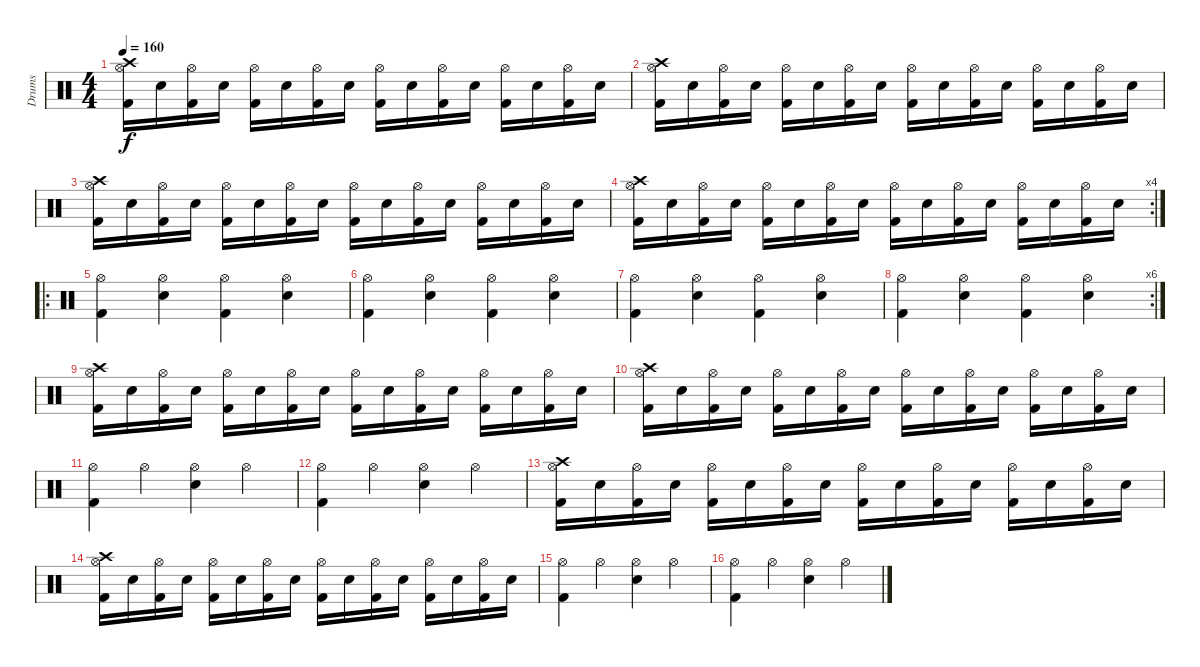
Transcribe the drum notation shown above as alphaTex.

\track ("Drums" "Drums") {instrument percussion}
\staff {score}
\articulation defaults
\ts (4 4)
\tempo 160
\clef neutral
\ks c
("Kick (hit) 2" "Hi-Hat (open)" "Crash high (hit)").16{dy f} "Snare (hit) 2".16 ("Kick (hit) 2" "Hi-Hat (open)").16 "Snare (hit) 2".16 ("Kick (hit) 2" "Hi-Hat (open)").16 "Snare (hit) 2".16 ("Kick (hit) 2" "Hi-Hat (open)").16 "Snare (hit) 2".16 ("Kick (hit) 2" "Hi-Hat (open)").16 "Snare (hit) 2".16 ("Kick (hit) 2" "Hi-Hat (open)").16 "Snare (hit) 2".16 ("Kick (hit) 2" "Hi-Hat (open)").16 "Snare (hit) 2".16 ("Kick (hit) 2" "Hi-Hat (open)").16 "Snare (hit) 2".16 |
("Kick (hit) 2" "Hi-Hat (open)" "Crash high (hit)").16 "Snare (hit) 2".16 ("Kick (hit) 2" "Hi-Hat (open)").16 "Snare (hit) 2".16 ("Kick (hit) 2" "Hi-Hat (open)").16 "Snare (hit) 2".16 ("Kick (hit) 2" "Hi-Hat (open)").16 "Snare (hit) 2".16 ("Kick (hit) 2" "Hi-Hat (open)").16 "Snare (hit) 2".16 ("Kick (hit) 2" "Hi-Hat (open)").16 "Snare (hit) 2".16 ("Kick (hit) 2" "Hi-Hat (open)").16 "Snare (hit) 2".16 ("Kick (hit) 2" "Hi-Hat (open)").16 "Snare (hit) 2".16 |
("Kick (hit) 2" "Hi-Hat (open)" "Crash high (hit)").16 "Snare (hit) 2".16 ("Kick (hit) 2" "Hi-Hat (open)").16 "Snare (hit) 2".16 ("Kick (hit) 2" "Hi-Hat (open)").16 "Snare (hit) 2".16 ("Kick (hit) 2" "Hi-Hat (open)").16 "Snare (hit) 2".16 ("Kick (hit) 2" "Hi-Hat (open)").16 "Snare (hit) 2".16 ("Kick (hit) 2" "Hi-Hat (open)").16 "Snare (hit) 2".16 ("Kick (hit) 2" "Hi-Hat (open)").16 "Snare (hit) 2".16 ("Kick (hit) 2" "Hi-Hat (open)").16 "Snare (hit) 2".16 |
\rc 4
("Kick (hit) 2" "Hi-Hat (open)" "Crash high (hit)").16 "Snare (hit) 2".16 ("Kick (hit) 2" "Hi-Hat (open)").16 "Snare (hit) 2".16 ("Kick (hit) 2" "Hi-Hat (open)").16 "Snare (hit) 2".16 ("Kick (hit) 2" "Hi-Hat (open)").16 "Snare (hit) 2".16 ("Kick (hit) 2" "Hi-Hat (open)").16 "Snare (hit) 2".16 ("Kick (hit) 2" "Hi-Hat (open)").16 "Snare (hit) 2".16 ("Kick (hit) 2" "Hi-Hat (open)").16 "Snare (hit) 2".16 ("Kick (hit) 2" "Hi-Hat (open)").16 "Snare (hit) 2".16 |
\ro
("Kick (hit) 2" "Hi-Hat (open)").4 ("Snare (hit) 2" "Hi-Hat (open)").4 ("Kick (hit) 2" "Hi-Hat (open)").4 ("Snare (hit) 2" "Hi-Hat (open)").4 |
("Kick (hit) 2" "Hi-Hat (open)").4 ("Snare (hit) 2" "Hi-Hat (open)").4 ("Kick (hit) 2" "Hi-Hat (open)").4 ("Snare (hit) 2" "Hi-Hat (open)").4 |
("Kick (hit) 2" "Hi-Hat (open)").4 ("Snare (hit) 2" "Hi-Hat (open)").4 ("Kick (hit) 2" "Hi-Hat (open)").4 ("Snare (hit) 2" "Hi-Hat (open)").4 |
\rc 6
("Kick (hit) 2" "Hi-Hat (open)").4 ("Snare (hit) 2" "Hi-Hat (open)").4 ("Kick (hit) 2" "Hi-Hat (open)").4 ("Snare (hit) 2" "Hi-Hat (open)").4 |
("Kick (hit) 2" "Hi-Hat (open)" "Crash high (hit)").16 "Snare (hit) 2".16 ("Kick (hit) 2" "Hi-Hat (open)").16 "Snare (hit) 2".16 ("Kick (hit) 2" "Hi-Hat (open)").16 "Snare (hit) 2".16 ("Kick (hit) 2" "Hi-Hat (open)").16 "Snare (hit) 2".16 ("Kick (hit) 2" "Hi-Hat (open)").16 "Snare (hit) 2".16 ("Kick (hit) 2" "Hi-Hat (open)").16 "Snare (hit) 2".16 ("Kick (hit) 2" "Hi-Hat (open)").16 "Snare (hit) 2".16 ("Kick (hit) 2" "Hi-Hat (open)").16 "Snare (hit) 2".16 |
("Kick (hit) 2" "Hi-Hat (open)" "Crash high (hit)").16 "Snare (hit) 2".16 ("Kick (hit) 2" "Hi-Hat (open)").16 "Snare (hit) 2".16 ("Kick (hit) 2" "Hi-Hat (open)").16 "Snare (hit) 2".16 ("Kick (hit) 2" "Hi-Hat (open)").16 "Snare (hit) 2".16 ("Kick (hit) 2" "Hi-Hat (open)").16 "Snare (hit) 2".16 ("Kick (hit) 2" "Hi-Hat (open)").16 "Snare (hit) 2".16 ("Kick (hit) 2" "Hi-Hat (open)").16 "Snare (hit) 2".16 ("Kick (hit) 2" "Hi-Hat (open)").16 "Snare (hit) 2".16 |
("Kick (hit) 2" "Hi-Hat (open)").4 "Hi-Hat (open)".4 ("Snare (hit) 2" "Hi-Hat (open)").4 "Hi-Hat (open)".4 |
("Kick (hit) 2" "Hi-Hat (open)").4 "Hi-Hat (open)".4 ("Snare (hit) 2" "Hi-Hat (open)").4 "Hi-Hat (open)".4 |
("Kick (hit) 2" "Hi-Hat (open)" "Crash high (hit)").16 "Snare (hit) 2".16 ("Kick (hit) 2" "Hi-Hat (open)").16 "Snare (hit) 2".16 ("Kick (hit) 2" "Hi-Hat (open)").16 "Snare (hit) 2".16 ("Kick (hit) 2" "Hi-Hat (open)").16 "Snare (hit) 2".16 ("Kick (hit) 2" "Hi-Hat (open)").16 "Snare (hit) 2".16 ("Kick (hit) 2" "Hi-Hat (open)").16 "Snare (hit) 2".16 ("Kick (hit) 2" "Hi-Hat (open)").16 "Snare (hit) 2".16 ("Kick (hit) 2" "Hi-Hat (open)").16 "Snare (hit) 2".16 |
("Kick (hit) 2" "Hi-Hat (open)" "Crash high (hit)").16 "Snare (hit) 2".16 ("Kick (hit) 2" "Hi-Hat (open)").16 "Snare (hit) 2".16 ("Kick (hit) 2" "Hi-Hat (open)").16 "Snare (hit) 2".16 ("Kick (hit) 2" "Hi-Hat (open)").16 "Snare (hit) 2".16 ("Kick (hit) 2" "Hi-Hat (open)").16 "Snare (hit) 2".16 ("Kick (hit) 2" "Hi-Hat (open)").16 "Snare (hit) 2".16 ("Kick (hit) 2" "Hi-Hat (open)").16 "Snare (hit) 2".16 ("Kick (hit) 2" "Hi-Hat (open)").16 "Snare (hit) 2".16 |
("Kick (hit) 2" "Hi-Hat (open)").4 "Hi-Hat (open)".4 ("Snare (hit) 2" "Hi-Hat (open)").4 "Hi-Hat (open)".4 |
("Kick (hit) 2" "Hi-Hat (open)").4 "Hi-Hat (open)".4 ("Snare (hit) 2" "Hi-Hat (open)").4 "Hi-Hat (open)".4
